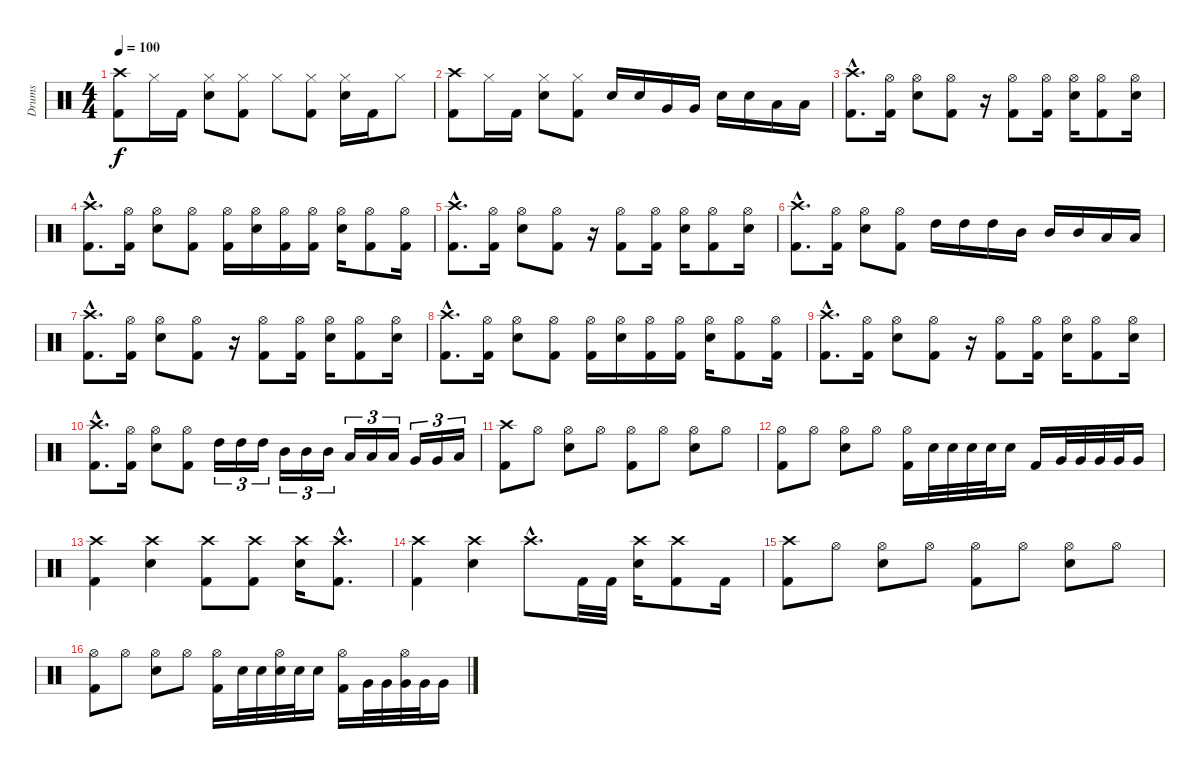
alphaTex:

\track ("Drums" "Drums") {instrument percussion}
\staff {score}
\articulation defaults
\ts (4 4)
\tempo 100
\clef neutral
\ks c
("Crash high (hit)" "Kick (hit) 2").8{dy f} "Hi-Hat (closed)".16 "Kick (hit) 2".16 ("Hi-Hat (closed)" "Electric Snare (hit)").8 ("Hi-Hat (closed)" "Kick (hit) 2").8 "Hi-Hat (closed)".8 ("Hi-Hat (closed)" "Kick (hit) 2").8 ("Hi-Hat (closed)" "Electric Snare (hit)").16 "Kick (hit) 2".16 "Hi-Hat (closed)".8 |
("Crash high (hit)" "Kick (hit) 2").8 "Hi-Hat (closed)".16 "Kick (hit) 2".16 ("Hi-Hat (closed)" "Electric Snare (hit)").8 ("Hi-Hat (closed)" "Kick (hit) 2").8 "Electric Snare (hit)".16 "Electric Snare (hit)".16 "Very Low Tom (hit)".16 "Very Low Tom (hit)".16 "Electric Snare (hit)".16 "Electric Snare (hit)".16 "Low Floor Tom (hit)".16 "Low Floor Tom (hit)".16 |
("Crash high (hit)"{hac} "Kick (hit) 2"{hac}).8{d} ("Hi-Hat (open)" "Kick (hit) 2").16 ("Hi-Hat (open)" "Electric Snare (hit)").8 ("Hi-Hat (open)" "Kick (hit) 2").8 r.16 ("Hi-Hat (open)" "Kick (hit) 2").8 ("Hi-Hat (open)" "Kick (hit) 2").16 ("Hi-Hat (open)" "Electric Snare (hit)").16 ("Hi-Hat (open)" "Kick (hit) 2").8 ("Hi-Hat (open)" "Electric Snare (hit)").16 |
("Crash high (hit)"{hac} "Kick (hit) 2"{hac}).8{d} ("Hi-Hat (open)" "Kick (hit) 2").16 ("Hi-Hat (open)" "Electric Snare (hit)").8 ("Hi-Hat (open)" "Kick (hit) 2").8 ("Hi-Hat (open)" "Kick (hit) 2").16 ("Hi-Hat (open)" "Electric Snare (hit)").16 ("Hi-Hat (open)" "Kick (hit) 2").16 ("Hi-Hat (open)" "Kick (hit) 2").16 ("Hi-Hat (open)" "Electric Snare (hit)").16 ("Hi-Hat (open)" "Kick (hit) 2").8 ("Hi-Hat (open)" "Kick (hit) 2").16 |
("Crash high (hit)"{hac} "Kick (hit) 2"{hac}).8{d} ("Hi-Hat (open)" "Kick (hit) 2").16 ("Hi-Hat (open)" "Electric Snare (hit)").8 ("Hi-Hat (open)" "Kick (hit) 2").8 r.16 ("Hi-Hat (open)" "Kick (hit) 2").8 ("Hi-Hat (open)" "Kick (hit) 2").16 ("Hi-Hat (open)" "Electric Snare (hit)").16 ("Hi-Hat (open)" "Kick (hit) 2").8 ("Hi-Hat (open)" "Electric Snare (hit)").16 |
("Crash high (hit)"{hac} "Kick (hit) 2"{hac}).8{d} ("Hi-Hat (open)" "Kick (hit) 2").16 ("Hi-Hat (open)" "Electric Snare (hit)").8 ("Hi-Hat (open)" "Kick (hit) 2").8 "High Tom (hit)".16 "High Tom (hit)".16 "High Tom (hit)".16 "Mid Tom (hit)".16 "Mid Tom (hit)".16 "Mid Tom (hit)".16 "Low Tom (hit)".16 "Low Tom (hit)".16 |
("Crash high (hit)"{hac} "Kick (hit) 2"{hac}).8{d} ("Hi-Hat (open)" "Kick (hit) 2").16 ("Hi-Hat (open)" "Electric Snare (hit)").8 ("Hi-Hat (open)" "Kick (hit) 2").8 r.16 ("Hi-Hat (open)" "Kick (hit) 2").8 ("Hi-Hat (open)" "Kick (hit) 2").16 ("Hi-Hat (open)" "Electric Snare (hit)").16 ("Hi-Hat (open)" "Kick (hit) 2").8 ("Hi-Hat (open)" "Electric Snare (hit)").16 |
("Crash high (hit)"{hac} "Kick (hit) 2"{hac}).8{d} ("Hi-Hat (open)" "Kick (hit) 2").16 ("Hi-Hat (open)" "Electric Snare (hit)").8 ("Hi-Hat (open)" "Kick (hit) 2").8 ("Hi-Hat (open)" "Kick (hit) 2").16 ("Hi-Hat (open)" "Electric Snare (hit)").16 ("Hi-Hat (open)" "Kick (hit) 2").16 ("Hi-Hat (open)" "Kick (hit) 2").16 ("Hi-Hat (open)" "Electric Snare (hit)").16 ("Hi-Hat (open)" "Kick (hit) 2").8 ("Hi-Hat (open)" "Kick (hit) 2").16 |
("Crash high (hit)"{hac} "Kick (hit) 2"{hac}).8{d} ("Hi-Hat (open)" "Kick (hit) 2").16 ("Hi-Hat (open)" "Electric Snare (hit)").8 ("Hi-Hat (open)" "Kick (hit) 2").8 r.16 ("Hi-Hat (open)" "Kick (hit) 2").8 ("Hi-Hat (open)" "Kick (hit) 2").16 ("Hi-Hat (open)" "Electric Snare (hit)").16 ("Hi-Hat (open)" "Kick (hit) 2").8 ("Hi-Hat (open)" "Electric Snare (hit)").16 |
("Crash high (hit)"{hac} "Kick (hit) 2"{hac}).8{d} ("Hi-Hat (open)" "Kick (hit) 2").16 ("Hi-Hat (open)" "Electric Snare (hit)").8 ("Hi-Hat (open)" "Kick (hit) 2").8 "High Tom (hit)".16{tu (3 2)} "High Tom (hit)".16{tu (3 2)} "High Tom (hit)".16{tu (3 2)} "Mid Tom (hit)".16{tu (3 2)} "Mid Tom (hit)".16{tu (3 2)} "Mid Tom (hit)".16{tu (3 2)} "Low Tom (hit)".16{tu (3 2)} "Low Tom (hit)".16{tu (3 2)} "Low Tom (hit)".16{tu (3 2)} "Very Low Tom (hit)".16{tu (3 2)} "Very Low Tom (hit)".16{tu (3 2)} "Low Floor Tom (hit)".16{tu (3 2)} |
("Crash high (hit)" "Kick (hit) 2").8 "Hi-Hat (open)".8 ("Hi-Hat (open)" "Electric Snare (hit)").8 "Hi-Hat (open)".8 ("Hi-Hat (open)" "Kick (hit) 2").8 "Hi-Hat (open)".8 ("Hi-Hat (open)" "Electric Snare (hit)").8 "Hi-Hat (open)".8 |
("Hi-Hat (open)" "Kick (hit) 2").8 "Hi-Hat (open)".8 ("Hi-Hat (open)" "Electric Snare (hit)").8 "Hi-Hat (open)".8 ("Hi-Hat (open)" "Kick (hit) 2").16 "Electric Snare (hit)".32 "Electric Snare (hit)".32 "Electric Snare (hit)".32 "Electric Snare (hit)".32 "Electric Snare (hit)".16 "Kick (hit) 2".16 "Very Low Tom (hit)".32 "Very Low Tom (hit)".32 "Very Low Tom (hit)".32 "Very Low Tom (hit)".32 "Very Low Tom (hit)".16 |
("Crash high (hit)" "Kick (hit) 2").4 ("Crash high (hit)" "Electric Snare (hit)").4 ("Crash high (hit)" "Kick (hit) 2").8 ("Crash high (hit)" "Kick (hit) 2").8 ("Crash high (hit)" "Electric Snare (hit)").16 ("Crash high (hit)"{hac} "Kick (hit) 2"{hac}).8{d} |
("Crash high (hit)" "Kick (hit) 2").4 ("Crash high (hit)" "Electric Snare (hit)").4 "Crash high (hit)"{hac}.8{d} "Kick (hit) 2".32 "Kick (hit) 2".32 ("Crash high (hit)" "Electric Snare (hit)").16 ("Crash high (hit)" "Kick (hit) 2").8 "Kick (hit) 2".16 |
("Crash high (hit)" "Kick (hit) 2").8 "Hi-Hat (open)".8 ("Hi-Hat (open)" "Electric Snare (hit)").8 "Hi-Hat (open)".8 ("Hi-Hat (open)" "Kick (hit) 2").8 "Hi-Hat (open)".8 ("Hi-Hat (open)" "Electric Snare (hit)").8 "Hi-Hat (open)".8 |
("Hi-Hat (open)" "Kick (hit) 2").8 "Hi-Hat (open)".8 ("Hi-Hat (open)" "Electric Snare (hit)").8 "Hi-Hat (open)".8 ("Hi-Hat (open)" "Kick (hit) 2").16 "Electric Snare (hit)".32 "Electric Snare (hit)".32 ("Hi-Hat (open)" "Electric Snare (hit)").32 "Electric Snare (hit)".32 "Electric Snare (hit)".16 ("Hi-Hat (open)" "Kick (hit) 2").16 "Very Low Tom (hit)".32 "Very Low Tom (hit)".32 ("Hi-Hat (open)" "Very Low Tom (hit)").32 "Very Low Tom (hit)".32 "Very Low Tom (hit)".16
